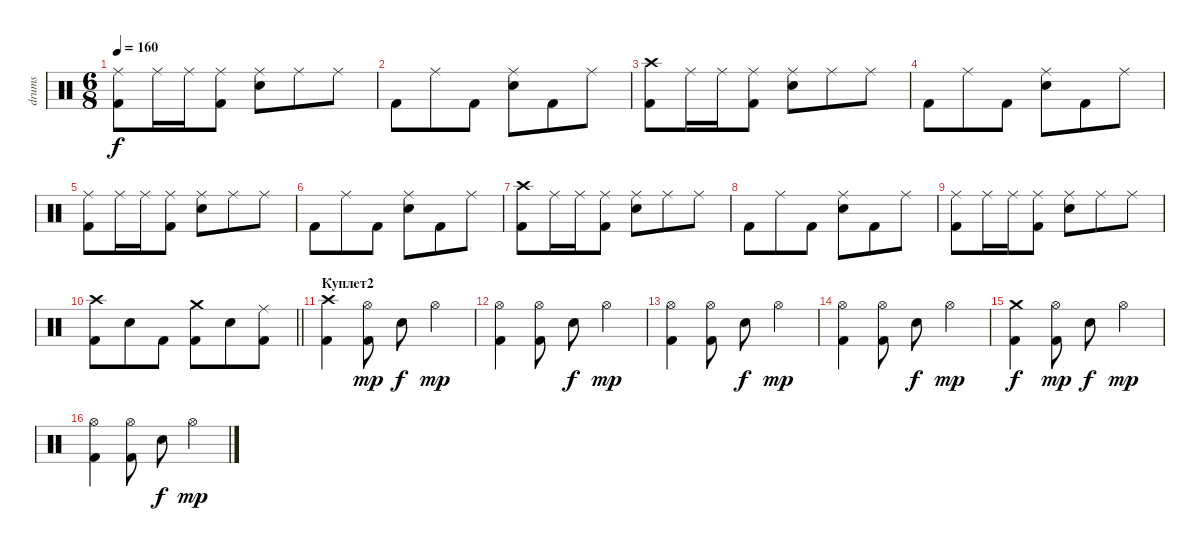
\track ("drums" "drums") {instrument percussion}
\staff {score}
\articulation defaults
\ts (6 8)
\tempo 160
\clef neutral
\ks c
("Ride (middle)" "Kick (hit) 2").8{dy f} "Ride (middle)".16 "Ride (middle)".16 ("Kick (hit) 2" "Ride (middle)").8 ("Electric Snare (hit)" "Ride (middle)").8 "Ride (middle)".8 "Ride (middle)".8 |
"Kick (hit) 2".8 "Ride (middle)".8 "Kick (hit) 2".8 ("Electric Snare (hit)" "Ride (middle)").8 "Kick (hit) 2".8 "Ride (middle)".8 |
("Kick (hit) 2" "Crash high (hit)").8 "Ride (middle)".16 "Ride (middle)".16 ("Kick (hit) 2" "Ride (middle)").8 ("Electric Snare (hit)" "Ride (middle)").8 "Ride (middle)".8 "Ride (middle)".8 |
"Kick (hit) 2".8 "Ride (middle)".8 "Kick (hit) 2".8 ("Electric Snare (hit)" "Ride (middle)").8 "Kick (hit) 2".8 "Ride (middle)".8 |
("Ride (middle)" "Kick (hit) 2").8 "Ride (middle)".16 "Ride (middle)".16 ("Kick (hit) 2" "Ride (middle)").8 ("Electric Snare (hit)" "Ride (middle)").8 "Ride (middle)".8 "Ride (middle)".8 |
"Kick (hit) 2".8 "Ride (middle)".8 "Kick (hit) 2".8 ("Electric Snare (hit)" "Ride (middle)").8 "Kick (hit) 2".8 "Ride (middle)".8 |
("Kick (hit) 2" "Crash high (hit)").8 "Ride (middle)".16 "Ride (middle)".16 ("Kick (hit) 2" "Ride (middle)").8 ("Electric Snare (hit)" "Ride (middle)").8 "Ride (middle)".8 "Ride (middle)".8 |
"Kick (hit) 2".8 "Ride (middle)".8 "Kick (hit) 2".8 ("Electric Snare (hit)" "Ride (middle)").8 "Kick (hit) 2".8 "Ride (middle)".8 |
("Ride (middle)" "Kick (hit) 2").8 "Ride (middle)".16 "Ride (middle)".16 ("Kick (hit) 2" "Ride (middle)").8 ("Electric Snare (hit)" "Ride (middle)").8 "Ride (middle)".8 "Ride (middle)".8 |
\barLineRight lightlight
("Crash high (hit)" "Kick (hit) 2").8 "Electric Snare (hit)".8 "Kick (hit) 2".8 ("Crash medium (hit)" "Kick (hit) 2").8 "Electric Snare (hit)".8 ("Kick (hit) 2" "Ride (middle)").8 |
\section ("" "Куплет2")
("Kick (hit) 2" "Crash high (hit)").4 ("Kick (hit) 2" "Hi-Hat (open)").8{dy mp} "Electric Snare (hit)".8{dy f} "Hi-Hat (open)".4{dy mp} |
("Kick (hit) 2" "Hi-Hat (open)").4 ("Kick (hit) 2" "Hi-Hat (open)").8 "Electric Snare (hit)".8{dy f} "Hi-Hat (open)".4{dy mp} |
("Hi-Hat (open)" "Kick (hit) 2").4 ("Kick (hit) 2" "Hi-Hat (open)").8 "Electric Snare (hit)".8{dy f} "Hi-Hat (open)".4{dy mp} |
("Kick (hit) 2" "Hi-Hat (open)").4 ("Kick (hit) 2" "Hi-Hat (open)").8 "Electric Snare (hit)".8{dy f} "Hi-Hat (open)".4{dy mp} |
("Kick (hit) 2" "Crash medium (hit)").4{dy f} ("Kick (hit) 2" "Hi-Hat (open)").8{dy mp} "Electric Snare (hit)".8{dy f} "Hi-Hat (open)".4{dy mp} |
("Kick (hit) 2" "Hi-Hat (open)").4 ("Kick (hit) 2" "Hi-Hat (open)").8 "Electric Snare (hit)".8{dy f} "Hi-Hat (open)".4{dy mp}
